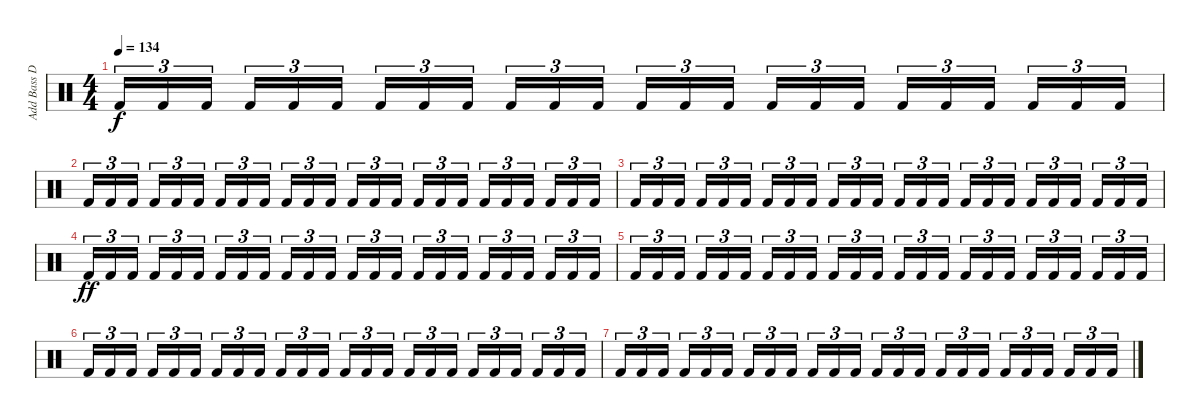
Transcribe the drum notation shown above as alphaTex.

\track ("Add Bass Drum" "Add Bass D") {instrument percussion}
\staff {score}
\articulation defaults
\ts (4 4)
\tempo 134
\clef neutral
\ks c "Kick (hit) 2".16{tu (3 2) dy f} "Kick (hit) 2".16{tu (3 2)} "Kick (hit) 2".16{tu (3 2)} "Kick (hit) 2".16{tu (3 2)} "Kick (hit) 2".16{tu (3 2)} "Kick (hit) 2".16{tu (3 2)} "Kick (hit) 2".16{tu (3 2)} "Kick (hit) 2".16{tu (3 2)} "Kick (hit) 2".16{tu (3 2)} "Kick (hit) 2".16{tu (3 2)} "Kick (hit) 2".16{tu (3 2)} "Kick (hit) 2".16{tu (3 2)} "Kick (hit) 2".16{tu (3 2)} "Kick (hit) 2".16{tu (3 2)} "Kick (hit) 2".16{tu (3 2)} "Kick (hit) 2".16{tu (3 2)} "Kick (hit) 2".16{tu (3 2)} "Kick (hit) 2".16{tu (3 2)} "Kick (hit) 2".16{tu (3 2)} "Kick (hit) 2".16{tu (3 2)} "Kick (hit) 2".16{tu (3 2)} "Kick (hit) 2".16{tu (3 2)} "Kick (hit) 2".16{tu (3 2)} "Kick (hit) 2".16{tu (3 2)}
|
"Kick (hit) 2".16{tu (3 2)} "Kick (hit) 2".16{tu (3 2)} "Kick (hit) 2".16{tu (3 2)} "Kick (hit) 2".16{tu (3 2)} "Kick (hit) 2".16{tu (3 2)} "Kick (hit) 2".16{tu (3 2)} "Kick (hit) 2".16{tu (3 2)} "Kick (hit) 2".16{tu (3 2)} "Kick (hit) 2".16{tu (3 2)} "Kick (hit) 2".16{tu (3 2)} "Kick (hit) 2".16{tu (3 2)} "Kick (hit) 2".16{tu (3 2)} "Kick (hit) 2".16{tu (3 2)} "Kick (hit) 2".16{tu (3 2)} "Kick (hit) 2".16{tu (3 2)} "Kick (hit) 2".16{tu (3 2)} "Kick (hit) 2".16{tu (3 2)} "Kick (hit) 2".16{tu (3 2)} "Kick (hit) 2".16{tu (3 2)} "Kick (hit) 2".16{tu (3 2)} "Kick (hit) 2".16{tu (3 2)} "Kick (hit) 2".16{tu (3 2)} "Kick (hit) 2".16{tu (3 2)} "Kick (hit) 2".16{tu (3 2)} |
"Kick (hit) 2".16{tu (3 2)} "Kick (hit) 2".16{tu (3 2)} "Kick (hit) 2".16{tu (3 2)} "Kick (hit) 2".16{tu (3 2)} "Kick (hit) 2".16{tu (3 2)} "Kick (hit) 2".16{tu (3 2)} "Kick (hit) 2".16{tu (3 2)} "Kick (hit) 2".16{tu (3 2)} "Kick (hit) 2".16{tu (3 2)} "Kick (hit) 2".16{tu (3 2)} "Kick (hit) 2".16{tu (3 2)} "Kick (hit) 2".16{tu (3 2)} "Kick (hit) 2".16{tu (3 2)} "Kick (hit) 2".16{tu (3 2)} "Kick (hit) 2".16{tu (3 2)} "Kick (hit) 2".16{tu (3 2)} "Kick (hit) 2".16{tu (3 2)} "Kick (hit) 2".16{tu (3 2)} "Kick (hit) 2".16{tu (3 2)} "Kick (hit) 2".16{tu (3 2)} "Kick (hit) 2".16{tu (3 2)} "Kick (hit) 2".16{tu (3 2)} "Kick (hit) 2".16{tu (3 2)} "Kick (hit) 2".16{tu (3 2)} |
"Kick (hit) 2".16{tu (3 2) dy ff} "Kick (hit) 2".16{tu (3 2)} "Kick (hit) 2".16{tu (3 2)} "Kick (hit) 2".16{tu (3 2)} "Kick (hit) 2".16{tu (3 2)} "Kick (hit) 2".16{tu (3 2)} "Kick (hit) 2".16{tu (3 2)} "Kick (hit) 2".16{tu (3 2)} "Kick (hit) 2".16{tu (3 2)} "Kick (hit) 2".16{tu (3 2)} "Kick (hit) 2".16{tu (3 2)} "Kick (hit) 2".16{tu (3 2)} "Kick (hit) 2".16{tu (3 2)} "Kick (hit) 2".16{tu (3 2)} "Kick (hit) 2".16{tu (3 2)} "Kick (hit) 2".16{tu (3 2)} "Kick (hit) 2".16{tu (3 2)} "Kick (hit) 2".16{tu (3 2)} "Kick (hit) 2".16{tu (3 2)} "Kick (hit) 2".16{tu (3 2)} "Kick (hit) 2".16{tu (3 2)} "Kick (hit) 2".16{tu (3 2)} "Kick (hit) 2".16{tu (3 2)} "Kick (hit) 2".16{tu (3 2)} |
"Kick (hit) 2".16{tu (3 2)} "Kick (hit) 2".16{tu (3 2)} "Kick (hit) 2".16{tu (3 2)} "Kick (hit) 2".16{tu (3 2)} "Kick (hit) 2".16{tu (3 2)} "Kick (hit) 2".16{tu (3 2)} "Kick (hit) 2".16{tu (3 2)} "Kick (hit) 2".16{tu (3 2)} "Kick (hit) 2".16{tu (3 2)} "Kick (hit) 2".16{tu (3 2)} "Kick (hit) 2".16{tu (3 2)} "Kick (hit) 2".16{tu (3 2)} "Kick (hit) 2".16{tu (3 2)} "Kick (hit) 2".16{tu (3 2)} "Kick (hit) 2".16{tu (3 2)} "Kick (hit) 2".16{tu (3 2)} "Kick (hit) 2".16{tu (3 2)} "Kick (hit) 2".16{tu (3 2)} "Kick (hit) 2".16{tu (3 2)} "Kick (hit) 2".16{tu (3 2)} "Kick (hit) 2".16{tu (3 2)} "Kick (hit) 2".16{tu (3 2)} "Kick (hit) 2".16{tu (3 2)} "Kick (hit) 2".16{tu (3 2)} |
"Kick (hit) 2".16{tu (3 2)} "Kick (hit) 2".16{tu (3 2)} "Kick (hit) 2".16{tu (3 2)} "Kick (hit) 2".16{tu (3 2)} "Kick (hit) 2".16{tu (3 2)} "Kick (hit) 2".16{tu (3 2)} "Kick (hit) 2".16{tu (3 2)} "Kick (hit) 2".16{tu (3 2)} "Kick (hit) 2".16{tu (3 2)} "Kick (hit) 2".16{tu (3 2)} "Kick (hit) 2".16{tu (3 2)} "Kick (hit) 2".16{tu (3 2)} "Kick (hit) 2".16{tu (3 2)} "Kick (hit) 2".16{tu (3 2)} "Kick (hit) 2".16{tu (3 2)} "Kick (hit) 2".16{tu (3 2)} "Kick (hit) 2".16{tu (3 2)} "Kick (hit) 2".16{tu (3 2)} "Kick (hit) 2".16{tu (3 2)} "Kick (hit) 2".16{tu (3 2)} "Kick (hit) 2".16{tu (3 2)} "Kick (hit) 2".16{tu (3 2)} "Kick (hit) 2".16{tu (3 2)} "Kick (hit) 2".16{tu (3 2)} |
"Kick (hit) 2".16{tu (3 2)} "Kick (hit) 2".16{tu (3 2)} "Kick (hit) 2".16{tu (3 2)} "Kick (hit) 2".16{tu (3 2)} "Kick (hit) 2".16{tu (3 2)} "Kick (hit) 2".16{tu (3 2)} "Kick (hit) 2".16{tu (3 2)} "Kick (hit) 2".16{tu (3 2)} "Kick (hit) 2".16{tu (3 2)} "Kick (hit) 2".16{tu (3 2)} "Kick (hit) 2".16{tu (3 2)} "Kick (hit) 2".16{tu (3 2)} "Kick (hit) 2".16{tu (3 2)} "Kick (hit) 2".16{tu (3 2)} "Kick (hit) 2".16{tu (3 2)} "Kick (hit) 2".16{tu (3 2)} "Kick (hit) 2".16{tu (3 2)} "Kick (hit) 2".16{tu (3 2)} "Kick (hit) 2".16{tu (3 2)} "Kick (hit) 2".16{tu (3 2)} "Kick (hit) 2".16{tu (3 2)} "Kick (hit) 2".16{tu (3 2)} "Kick (hit) 2".16{tu (3 2)} "Kick (hit) 2".16{tu (3 2)}
